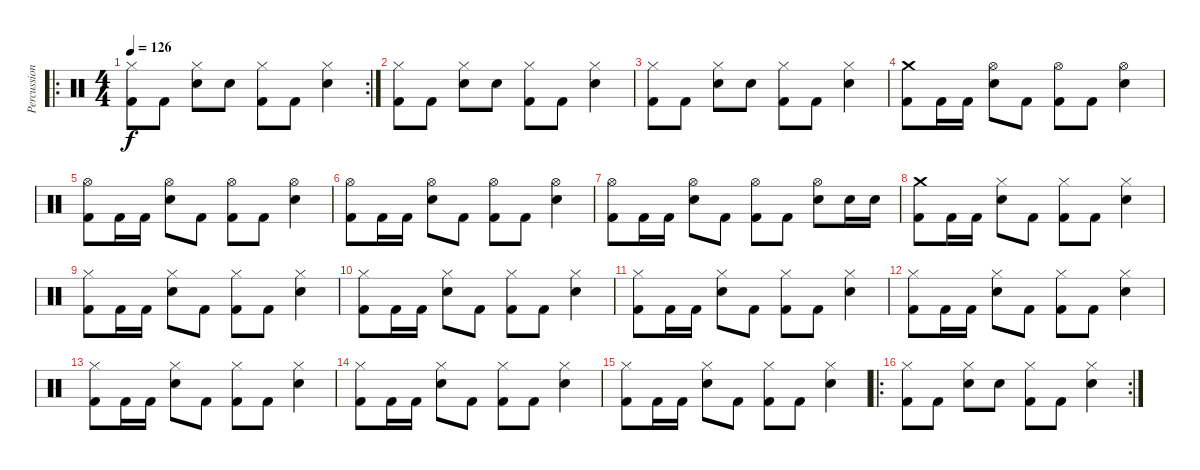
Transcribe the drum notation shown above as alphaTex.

\track ("Percussion" "Percussion") {instrument percussion}
\staff {score}
\articulation defaults
\ro
\rc 2
\ts (4 4)
\tempo 126
\clef neutral
\ks c
("Hi-Hat (closed)" "Kick (hit) 2").8{dy f} "Kick (hit) 2".8 ("Hi-Hat (closed)" "Electric Snare (hit)").8 "Electric Snare (hit)".8 ("Hi-Hat (closed)" "Kick (hit) 2").8 "Kick (hit) 2".8 ("Hi-Hat (closed)" "Electric Snare (hit)").4 |
("Hi-Hat (closed)" "Kick (hit) 2").8 "Kick (hit) 2".8 ("Hi-Hat (closed)" "Electric Snare (hit)").8 "Electric Snare (hit)".8 ("Hi-Hat (closed)" "Kick (hit) 2").8 "Kick (hit) 2".8 ("Hi-Hat (closed)" "Electric Snare (hit)").4 |
("Hi-Hat (closed)" "Kick (hit) 2").8 "Kick (hit) 2".8 ("Hi-Hat (closed)" "Electric Snare (hit)").8 "Electric Snare (hit)".8 ("Hi-Hat (closed)" "Kick (hit) 2").8 "Kick (hit) 2".8 ("Hi-Hat (closed)" "Electric Snare (hit)").4 |
("Crash medium (hit)" "Kick (hit) 2").8 "Kick (hit) 2".16 "Kick (hit) 2".16 ("Hi-Hat (open)" "Electric Snare (hit)").8 "Kick (hit) 2".8 ("Hi-Hat (open)" "Kick (hit) 2").8 "Kick (hit) 2".8 ("Hi-Hat (open)" "Electric Snare (hit)").4 |
("Hi-Hat (open)" "Kick (hit) 2").8 "Kick (hit) 2".16 "Kick (hit) 2".16 ("Hi-Hat (open)" "Electric Snare (hit)").8 "Kick (hit) 2".8 ("Hi-Hat (open)" "Kick (hit) 2").8 "Kick (hit) 2".8 ("Hi-Hat (open)" "Electric Snare (hit)").4 |
("Hi-Hat (open)" "Kick (hit) 2").8 "Kick (hit) 2".16 "Kick (hit) 2".16 ("Hi-Hat (open)" "Electric Snare (hit)").8 "Kick (hit) 2".8 ("Hi-Hat (open)" "Kick (hit) 2").8 "Kick (hit) 2".8 ("Hi-Hat (open)" "Electric Snare (hit)").4 |
("Hi-Hat (open)" "Kick (hit) 2").8 "Kick (hit) 2".16 "Kick (hit) 2".16 ("Hi-Hat (open)" "Electric Snare (hit)").8 "Kick (hit) 2".8 ("Hi-Hat (open)" "Kick (hit) 2").8 "Kick (hit) 2".8 ("Hi-Hat (open)" "Electric Snare (hit)").8 "Electric Snare (hit)".16 "Electric Snare (hit)".16 |
("Crash medium (hit)" "Kick (hit) 2").8 "Kick (hit) 2".16 "Kick (hit) 2".16 ("Hi-Hat (closed)" "Electric Snare (hit)").8 "Kick (hit) 2".8 ("Hi-Hat (closed)" "Kick (hit) 2").8 "Kick (hit) 2".8 ("Hi-Hat (closed)" "Electric Snare (hit)").4 |
("Hi-Hat (closed)" "Kick (hit) 2").8 "Kick (hit) 2".16 "Kick (hit) 2".16 ("Hi-Hat (closed)" "Electric Snare (hit)").8 "Kick (hit) 2".8 ("Hi-Hat (closed)" "Kick (hit) 2").8 "Kick (hit) 2".8 ("Hi-Hat (closed)" "Electric Snare (hit)").4 |
("Hi-Hat (closed)" "Kick (hit) 2").8 "Kick (hit) 2".16 "Kick (hit) 2".16 ("Hi-Hat (closed)" "Electric Snare (hit)").8 "Kick (hit) 2".8 ("Hi-Hat (closed)" "Kick (hit) 2").8 "Kick (hit) 2".8 ("Hi-Hat (closed)" "Electric Snare (hit)").4 |
("Hi-Hat (closed)" "Kick (hit) 2").8 "Kick (hit) 2".16 "Kick (hit) 2".16 ("Hi-Hat (closed)" "Electric Snare (hit)").8 "Kick (hit) 2".8 ("Hi-Hat (closed)" "Kick (hit) 2").8 "Kick (hit) 2".8 ("Hi-Hat (closed)" "Electric Snare (hit)").4 |
("Hi-Hat (closed)" "Kick (hit) 2").8 "Kick (hit) 2".16 "Kick (hit) 2".16 ("Hi-Hat (closed)" "Electric Snare (hit)").8 "Kick (hit) 2".8 ("Hi-Hat (closed)" "Kick (hit) 2").8 "Kick (hit) 2".8 ("Hi-Hat (closed)" "Electric Snare (hit)").4 |
("Hi-Hat (closed)" "Kick (hit) 2").8 "Kick (hit) 2".16 "Kick (hit) 2".16 ("Hi-Hat (closed)" "Electric Snare (hit)").8 "Kick (hit) 2".8 ("Hi-Hat (closed)" "Kick (hit) 2").8 "Kick (hit) 2".8 ("Hi-Hat (closed)" "Electric Snare (hit)").4 |
("Hi-Hat (closed)" "Kick (hit) 2").8 "Kick (hit) 2".16 "Kick (hit) 2".16 ("Hi-Hat (closed)" "Electric Snare (hit)").8 "Kick (hit) 2".8 ("Hi-Hat (closed)" "Kick (hit) 2").8 "Kick (hit) 2".8 ("Hi-Hat (closed)" "Electric Snare (hit)").4 |
("Hi-Hat (closed)" "Kick (hit) 2").8 "Kick (hit) 2".16 "Kick (hit) 2".16 ("Hi-Hat (closed)" "Electric Snare (hit)").8 "Kick (hit) 2".8 ("Hi-Hat (closed)" "Kick (hit) 2").8 "Kick (hit) 2".8 ("Hi-Hat (closed)" "Electric Snare (hit)").4 |
\ro
\rc 2
("Hi-Hat (closed)" "Kick (hit) 2").8 "Kick (hit) 2".8 ("Hi-Hat (closed)" "Electric Snare (hit)").8 "Electric Snare (hit)".8 ("Hi-Hat (closed)" "Kick (hit) 2").8 "Kick (hit) 2".8 ("Hi-Hat (closed)" "Electric Snare (hit)").4
